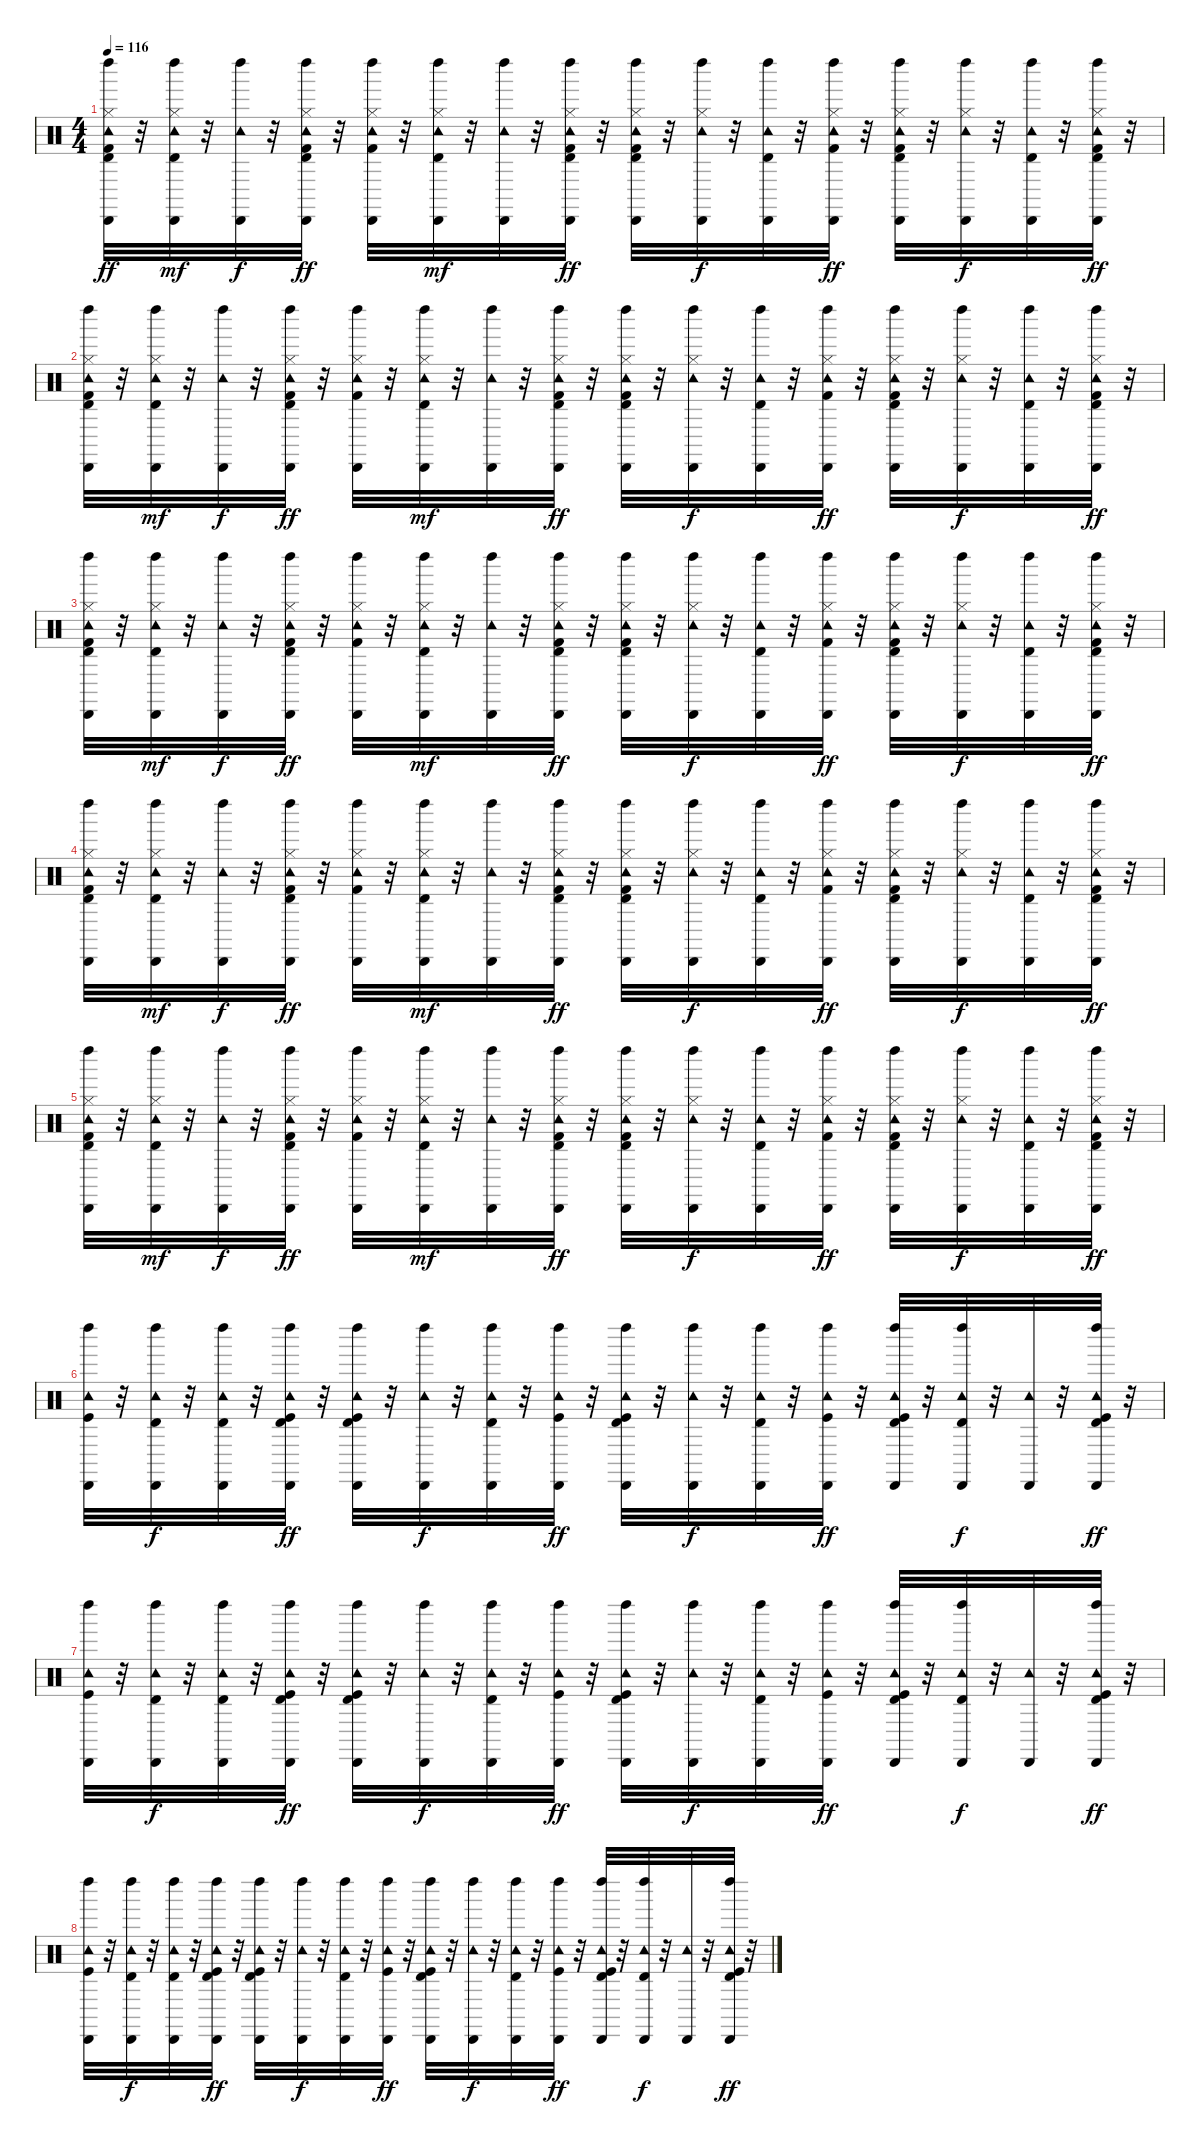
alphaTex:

\track "" {instrument percussion}
\staff {score}
\articulation defaults
\ts (4 4)
\tempo 116
\clef neutral
\ks c
("Kick (hit) 2" "Hi-Hat (closed)" "Tambourine (hit)" "Timbale high (hit)" "Cabasa (hit)" "Left Maraca (hit)").32{dy ff} r.32 ("Hi-Hat (closed)" "Tambourine (hit)" "Timbale high (hit)" "Cabasa (hit)" "Left Maraca (hit)").32{dy mf} r.32 ("Tambourine (hit)" "Cabasa (hit)" "Left Maraca (hit)").32{dy f} r.32 ("Kick (hit) 2" "Hi-Hat (closed)" "Tambourine (hit)" "Timbale high (hit)" "Cabasa (hit)" "Left Maraca (hit)").32{dy ff} r.32 ("Kick (hit) 2" "Hi-Hat (closed)" "Tambourine (hit)" "Cabasa (hit)" "Left Maraca (hit)").32 r.32 ("Hi-Hat (closed)" "Tambourine (hit)" "Timbale high (hit)" "Cabasa (hit)" "Left Maraca (hit)").32{dy mf} r.32 ("Tambourine (hit)" "Cabasa (hit)" "Left Maraca (hit)").32 r.32 ("Kick (hit) 2" "Hi-Hat (closed)" "Tambourine (hit)" "Timbale high (hit)" "Cabasa (hit)" "Left Maraca (hit)").32{dy ff} r.32 ("Kick (hit) 2" "Hi-Hat (closed)" "Tambourine (hit)" "Timbale high (hit)" "Cabasa (hit)" "Left Maraca (hit)").32 r.32 ("Hi-Hat (closed)" "Tambourine (hit)" "Cabasa (hit)" "Left Maraca (hit)").32{dy f} r.32 ("Tambourine (hit)" "Timbale high (hit)" "Cabasa (hit)" "Left Maraca (hit)").32 r.32 ("Kick (hit) 2" "Hi-Hat (closed)" "Tambourine (hit)" "Cabasa (hit)" "Left Maraca (hit)").32{dy ff} r.32 ("Kick (hit) 2" "Hi-Hat (closed)" "Tambourine (hit)" "Timbale high (hit)" "Cabasa (hit)" "Left Maraca (hit)").32 r.32 ("Hi-Hat (closed)" "Tambourine (hit)" "Cabasa (hit)" "Left Maraca (hit)").32{dy f} r.32 ("Tambourine (hit)" "Timbale high (hit)" "Cabasa (hit)" "Left Maraca (hit)").32 r.32 ("Kick (hit) 2" "Hi-Hat (closed)" "Tambourine (hit)" "Timbale high (hit)" "Cabasa (hit)" "Left Maraca (hit)").32{dy ff} r.32 |
("Kick (hit) 2" "Hi-Hat (closed)" "Tambourine (hit)" "Timbale high (hit)" "Cabasa (hit)" "Left Maraca (hit)").32 r.32 ("Hi-Hat (closed)" "Tambourine (hit)" "Timbale high (hit)" "Cabasa (hit)" "Left Maraca (hit)").32{dy mf} r.32 ("Tambourine (hit)" "Cabasa (hit)" "Left Maraca (hit)").32{dy f} r.32 ("Kick (hit) 2" "Hi-Hat (closed)" "Tambourine (hit)" "Timbale high (hit)" "Cabasa (hit)" "Left Maraca (hit)").32{dy ff} r.32 ("Kick (hit) 2" "Hi-Hat (closed)" "Tambourine (hit)" "Cabasa (hit)" "Left Maraca (hit)").32 r.32 ("Hi-Hat (closed)" "Tambourine (hit)" "Timbale high (hit)" "Cabasa (hit)" "Left Maraca (hit)").32{dy mf} r.32 ("Tambourine (hit)" "Cabasa (hit)" "Left Maraca (hit)").32 r.32 ("Kick (hit) 2" "Hi-Hat (closed)" "Tambourine (hit)" "Timbale high (hit)" "Cabasa (hit)" "Left Maraca (hit)").32{dy ff} r.32 ("Kick (hit) 2" "Hi-Hat (closed)" "Tambourine (hit)" "Timbale high (hit)" "Cabasa (hit)" "Left Maraca (hit)").32 r.32 ("Hi-Hat (closed)" "Tambourine (hit)" "Cabasa (hit)" "Left Maraca (hit)").32{dy f} r.32 ("Tambourine (hit)" "Timbale high (hit)" "Cabasa (hit)" "Left Maraca (hit)").32 r.32 ("Kick (hit) 2" "Hi-Hat (closed)" "Tambourine (hit)" "Cabasa (hit)" "Left Maraca (hit)").32{dy ff} r.32 ("Kick (hit) 2" "Hi-Hat (closed)" "Tambourine (hit)" "Timbale high (hit)" "Cabasa (hit)" "Left Maraca (hit)").32 r.32 ("Hi-Hat (closed)" "Tambourine (hit)" "Cabasa (hit)" "Left Maraca (hit)").32{dy f} r.32 ("Tambourine (hit)" "Timbale high (hit)" "Cabasa (hit)" "Left Maraca (hit)").32 r.32 ("Kick (hit) 2" "Hi-Hat (closed)" "Tambourine (hit)" "Timbale high (hit)" "Cabasa (hit)" "Left Maraca (hit)").32{dy ff} r.32 |
("Kick (hit) 2" "Hi-Hat (closed)" "Tambourine (hit)" "Timbale high (hit)" "Cabasa (hit)" "Left Maraca (hit)").32 r.32 ("Hi-Hat (closed)" "Tambourine (hit)" "Timbale high (hit)" "Cabasa (hit)" "Left Maraca (hit)").32{dy mf} r.32 ("Tambourine (hit)" "Cabasa (hit)" "Left Maraca (hit)").32{dy f} r.32 ("Kick (hit) 2" "Hi-Hat (closed)" "Tambourine (hit)" "Timbale high (hit)" "Cabasa (hit)" "Left Maraca (hit)").32{dy ff} r.32 ("Kick (hit) 2" "Hi-Hat (closed)" "Tambourine (hit)" "Cabasa (hit)" "Left Maraca (hit)").32 r.32 ("Hi-Hat (closed)" "Tambourine (hit)" "Timbale high (hit)" "Cabasa (hit)" "Left Maraca (hit)").32{dy mf} r.32 ("Tambourine (hit)" "Cabasa (hit)" "Left Maraca (hit)").32 r.32 ("Kick (hit) 2" "Hi-Hat (closed)" "Tambourine (hit)" "Timbale high (hit)" "Cabasa (hit)" "Left Maraca (hit)").32{dy ff} r.32 ("Kick (hit) 2" "Hi-Hat (closed)" "Tambourine (hit)" "Timbale high (hit)" "Cabasa (hit)" "Left Maraca (hit)").32 r.32 ("Hi-Hat (closed)" "Tambourine (hit)" "Cabasa (hit)" "Left Maraca (hit)").32{dy f} r.32 ("Tambourine (hit)" "Timbale high (hit)" "Cabasa (hit)" "Left Maraca (hit)").32 r.32 ("Kick (hit) 2" "Hi-Hat (closed)" "Tambourine (hit)" "Cabasa (hit)" "Left Maraca (hit)").32{dy ff} r.32 ("Kick (hit) 2" "Hi-Hat (closed)" "Tambourine (hit)" "Timbale high (hit)" "Cabasa (hit)" "Left Maraca (hit)").32 r.32 ("Hi-Hat (closed)" "Tambourine (hit)" "Cabasa (hit)" "Left Maraca (hit)").32{dy f} r.32 ("Tambourine (hit)" "Timbale high (hit)" "Cabasa (hit)" "Left Maraca (hit)").32 r.32 ("Kick (hit) 2" "Hi-Hat (closed)" "Tambourine (hit)" "Timbale high (hit)" "Cabasa (hit)" "Left Maraca (hit)").32{dy ff} r.32 |
("Kick (hit) 2" "Hi-Hat (closed)" "Tambourine (hit)" "Timbale high (hit)" "Cabasa (hit)" "Left Maraca (hit)").32 r.32 ("Hi-Hat (closed)" "Tambourine (hit)" "Timbale high (hit)" "Cabasa (hit)" "Left Maraca (hit)").32{dy mf} r.32 ("Tambourine (hit)" "Cabasa (hit)" "Left Maraca (hit)").32{dy f} r.32 ("Kick (hit) 2" "Hi-Hat (closed)" "Tambourine (hit)" "Timbale high (hit)" "Cabasa (hit)" "Left Maraca (hit)").32{dy ff} r.32 ("Kick (hit) 2" "Hi-Hat (closed)" "Tambourine (hit)" "Cabasa (hit)" "Left Maraca (hit)").32 r.32 ("Hi-Hat (closed)" "Tambourine (hit)" "Timbale high (hit)" "Cabasa (hit)" "Left Maraca (hit)").32{dy mf} r.32 ("Tambourine (hit)" "Cabasa (hit)" "Left Maraca (hit)").32 r.32 ("Kick (hit) 2" "Hi-Hat (closed)" "Tambourine (hit)" "Timbale high (hit)" "Cabasa (hit)" "Left Maraca (hit)").32{dy ff} r.32 ("Kick (hit) 2" "Hi-Hat (closed)" "Tambourine (hit)" "Timbale high (hit)" "Cabasa (hit)" "Left Maraca (hit)").32 r.32 ("Hi-Hat (closed)" "Tambourine (hit)" "Cabasa (hit)" "Left Maraca (hit)").32{dy f} r.32 ("Tambourine (hit)" "Timbale high (hit)" "Cabasa (hit)" "Left Maraca (hit)").32 r.32 ("Kick (hit) 2" "Hi-Hat (closed)" "Tambourine (hit)" "Cabasa (hit)" "Left Maraca (hit)").32{dy ff} r.32 ("Kick (hit) 2" "Hi-Hat (closed)" "Tambourine (hit)" "Timbale high (hit)" "Cabasa (hit)" "Left Maraca (hit)").32 r.32 ("Hi-Hat (closed)" "Tambourine (hit)" "Cabasa (hit)" "Left Maraca (hit)").32{dy f} r.32 ("Tambourine (hit)" "Timbale high (hit)" "Cabasa (hit)" "Left Maraca (hit)").32 r.32 ("Kick (hit) 2" "Hi-Hat (closed)" "Tambourine (hit)" "Timbale high (hit)" "Cabasa (hit)" "Left Maraca (hit)").32{dy ff} r.32 |
("Kick (hit) 2" "Hi-Hat (closed)" "Tambourine (hit)" "Timbale high (hit)" "Cabasa (hit)" "Left Maraca (hit)").32 r.32 ("Hi-Hat (closed)" "Tambourine (hit)" "Timbale high (hit)" "Cabasa (hit)" "Left Maraca (hit)").32{dy mf} r.32 ("Tambourine (hit)" "Cabasa (hit)" "Left Maraca (hit)").32{dy f} r.32 ("Kick (hit) 2" "Hi-Hat (closed)" "Tambourine (hit)" "Timbale high (hit)" "Cabasa (hit)" "Left Maraca (hit)").32{dy ff} r.32 ("Kick (hit) 2" "Hi-Hat (closed)" "Tambourine (hit)" "Cabasa (hit)" "Left Maraca (hit)").32 r.32 ("Hi-Hat (closed)" "Tambourine (hit)" "Timbale high (hit)" "Cabasa (hit)" "Left Maraca (hit)").32{dy mf} r.32 ("Tambourine (hit)" "Cabasa (hit)" "Left Maraca (hit)").32 r.32 ("Kick (hit) 2" "Hi-Hat (closed)" "Tambourine (hit)" "Timbale high (hit)" "Cabasa (hit)" "Left Maraca (hit)").32{dy ff} r.32 ("Kick (hit) 2" "Hi-Hat (closed)" "Tambourine (hit)" "Timbale high (hit)" "Cabasa (hit)" "Left Maraca (hit)").32 r.32 ("Hi-Hat (closed)" "Tambourine (hit)" "Cabasa (hit)" "Left Maraca (hit)").32{dy f} r.32 ("Tambourine (hit)" "Timbale high (hit)" "Cabasa (hit)" "Left Maraca (hit)").32 r.32 ("Kick (hit) 2" "Hi-Hat (closed)" "Tambourine (hit)" "Cabasa (hit)" "Left Maraca (hit)").32{dy ff} r.32 ("Kick (hit) 2" "Hi-Hat (closed)" "Tambourine (hit)" "Timbale high (hit)" "Cabasa (hit)" "Left Maraca (hit)").32 r.32 ("Hi-Hat (closed)" "Tambourine (hit)" "Cabasa (hit)" "Left Maraca (hit)").32{dy f} r.32 ("Tambourine (hit)" "Timbale high (hit)" "Cabasa (hit)" "Left Maraca (hit)").32 r.32 ("Kick (hit) 2" "Hi-Hat (closed)" "Tambourine (hit)" "Timbale high (hit)" "Cabasa (hit)" "Left Maraca (hit)").32{dy ff} r.32 |
("Kick (hit)" "Tambourine (hit)" "Cabasa (hit)" "Left Maraca (hit)").32 r.32 ("Tambourine (hit)" "Timbale high (hit)" "Cabasa (hit)" "Left Maraca (hit)").32{dy f} r.32 ("Tambourine (hit)" "Timbale high (hit)" "Cabasa (hit)" "Left Maraca (hit)").32 r.32 ("Kick (hit)" "Tambourine (hit)" "Timbale high (hit)" "Cabasa (hit)" "Left Maraca (hit)").32{dy ff} r.32 ("Kick (hit)" "Tambourine (hit)" "Timbale high (hit)" "Cabasa (hit)" "Left Maraca (hit)").32 r.32 ("Tambourine (hit)" "Cabasa (hit)" "Left Maraca (hit)").32{dy f} r.32 ("Tambourine (hit)" "Timbale high (hit)" "Cabasa (hit)" "Left Maraca (hit)").32 r.32 ("Kick (hit)" "Tambourine (hit)" "Cabasa (hit)" "Left Maraca (hit)").32{dy ff} r.32 ("Kick (hit)" "Tambourine (hit)" "Timbale high (hit)" "Cabasa (hit)" "Left Maraca (hit)").32 r.32 ("Tambourine (hit)" "Cabasa (hit)" "Left Maraca (hit)").32{dy f} r.32 ("Tambourine (hit)" "Timbale high (hit)" "Cabasa (hit)" "Left Maraca (hit)").32 r.32 ("Kick (hit)" "Tambourine (hit)" "Cabasa (hit)" "Left Maraca (hit)").32{dy ff} r.32 ("Kick (hit)" "Tambourine (hit)" "Timbale high (hit)" "Cabasa (hit)" "Left Maraca (hit)").32 r.32 ("Tambourine (hit)" "Timbale high (hit)" "Cabasa (hit)" "Left Maraca (hit)").32{dy f} r.32 ("Tambourine (hit)" "Cabasa (hit)").32 r.32 ("Kick (hit)" "Tambourine (hit)" "Timbale high (hit)" "Cabasa (hit)" "Left Maraca (hit)").32{dy ff} r.32 |
("Kick (hit)" "Tambourine (hit)" "Cabasa (hit)" "Left Maraca (hit)").32 r.32 ("Tambourine (hit)" "Timbale high (hit)" "Cabasa (hit)" "Left Maraca (hit)").32{dy f} r.32 ("Tambourine (hit)" "Timbale high (hit)" "Cabasa (hit)" "Left Maraca (hit)").32 r.32 ("Kick (hit)" "Tambourine (hit)" "Timbale high (hit)" "Cabasa (hit)" "Left Maraca (hit)").32{dy ff} r.32 ("Kick (hit)" "Tambourine (hit)" "Timbale high (hit)" "Cabasa (hit)" "Left Maraca (hit)").32 r.32 ("Tambourine (hit)" "Cabasa (hit)" "Left Maraca (hit)").32{dy f} r.32 ("Tambourine (hit)" "Timbale high (hit)" "Cabasa (hit)" "Left Maraca (hit)").32 r.32 ("Kick (hit)" "Tambourine (hit)" "Cabasa (hit)" "Left Maraca (hit)").32{dy ff} r.32 ("Kick (hit)" "Tambourine (hit)" "Timbale high (hit)" "Cabasa (hit)" "Left Maraca (hit)").32 r.32 ("Tambourine (hit)" "Cabasa (hit)" "Left Maraca (hit)").32{dy f} r.32 ("Tambourine (hit)" "Timbale high (hit)" "Cabasa (hit)" "Left Maraca (hit)").32 r.32 ("Kick (hit)" "Tambourine (hit)" "Cabasa (hit)" "Left Maraca (hit)").32{dy ff} r.32 ("Kick (hit)" "Tambourine (hit)" "Timbale high (hit)" "Cabasa (hit)" "Left Maraca (hit)").32 r.32 ("Tambourine (hit)" "Timbale high (hit)" "Cabasa (hit)" "Left Maraca (hit)").32{dy f} r.32 ("Tambourine (hit)" "Cabasa (hit)").32 r.32 ("Kick (hit)" "Tambourine (hit)" "Timbale high (hit)" "Cabasa (hit)" "Left Maraca (hit)").32{dy ff} r.32 |
("Kick (hit)" "Tambourine (hit)" "Cabasa (hit)" "Left Maraca (hit)").32 r.32 ("Tambourine (hit)" "Timbale high (hit)" "Cabasa (hit)" "Left Maraca (hit)").32{dy f} r.32 ("Tambourine (hit)" "Timbale high (hit)" "Cabasa (hit)" "Left Maraca (hit)").32 r.32 ("Kick (hit)" "Tambourine (hit)" "Timbale high (hit)" "Cabasa (hit)" "Left Maraca (hit)").32{dy ff} r.32 ("Kick (hit)" "Tambourine (hit)" "Timbale high (hit)" "Cabasa (hit)" "Left Maraca (hit)").32 r.32 ("Tambourine (hit)" "Cabasa (hit)" "Left Maraca (hit)").32{dy f} r.32 ("Tambourine (hit)" "Timbale high (hit)" "Cabasa (hit)" "Left Maraca (hit)").32 r.32 ("Kick (hit)" "Tambourine (hit)" "Cabasa (hit)" "Left Maraca (hit)").32{dy ff} r.32 ("Kick (hit)" "Tambourine (hit)" "Timbale high (hit)" "Cabasa (hit)" "Left Maraca (hit)").32 r.32 ("Tambourine (hit)" "Cabasa (hit)" "Left Maraca (hit)").32{dy f} r.32 ("Tambourine (hit)" "Timbale high (hit)" "Cabasa (hit)" "Left Maraca (hit)").32 r.32 ("Kick (hit)" "Tambourine (hit)" "Cabasa (hit)" "Left Maraca (hit)").32{dy ff} r.32 ("Kick (hit)" "Tambourine (hit)" "Timbale high (hit)" "Cabasa (hit)" "Left Maraca (hit)").32 r.32 ("Tambourine (hit)" "Timbale high (hit)" "Cabasa (hit)" "Left Maraca (hit)").32{dy f} r.32 ("Tambourine (hit)" "Cabasa (hit)").32 r.32 ("Kick (hit)" "Tambourine (hit)" "Timbale high (hit)" "Cabasa (hit)" "Left Maraca (hit)").32{dy ff} r.32
